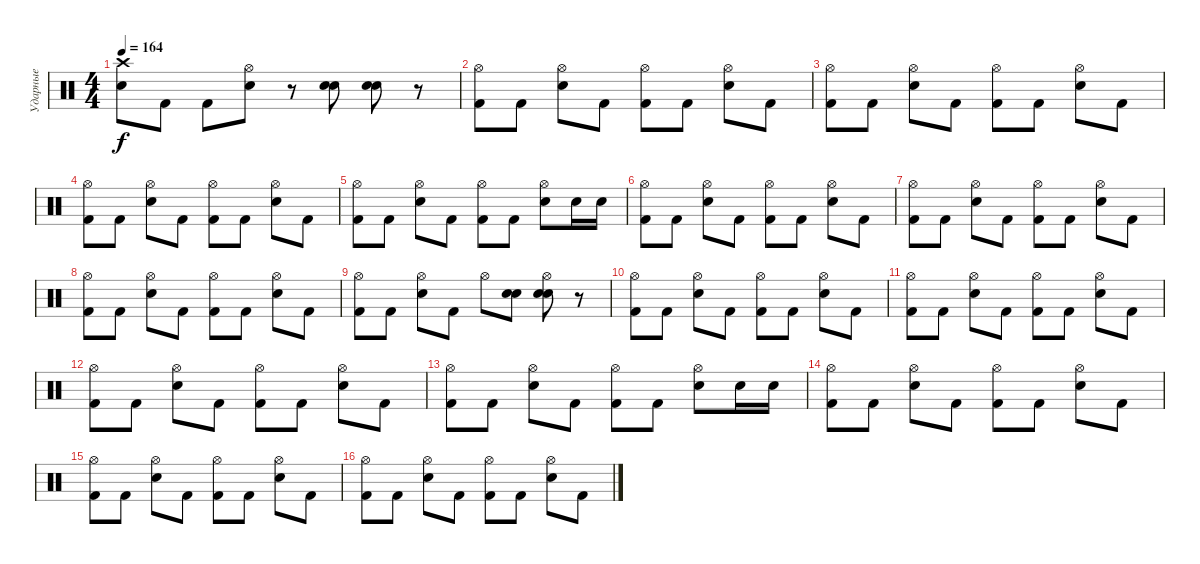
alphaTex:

\track ("Ударные" "Ударные") {instrument percussion}
\staff {score}
\articulation defaults
\ts (4 4)
\tempo 164
\clef neutral
\ks c
("Crash high (hit)" "Snare (hit) 2").8{dy f} "Kick (hit) 2".8 "Kick (hit) 2".8 ("Hi-Hat (open)" "Snare (hit) 2").8 r.8 ("Snare (hit) 2" "Snare (hit) 2").8 ("Snare (hit) 2" "Snare (hit) 2").8 r.8 |
("Hi-Hat (open)" "Kick (hit) 2").8 "Kick (hit) 2".8 ("Hi-Hat (open)" "Snare (hit) 2").8 "Kick (hit) 2".8 ("Hi-Hat (open)" "Kick (hit) 2").8 "Kick (hit) 2".8 ("Hi-Hat (open)" "Snare (hit) 2").8 "Kick (hit) 2".8 |
("Hi-Hat (open)" "Kick (hit) 2").8 "Kick (hit) 2".8 ("Hi-Hat (open)" "Snare (hit) 2").8 "Kick (hit) 2".8 ("Hi-Hat (open)" "Kick (hit) 2").8 "Kick (hit) 2".8 ("Hi-Hat (open)" "Snare (hit) 2").8 "Kick (hit) 2".8 |
("Hi-Hat (open)" "Kick (hit) 2").8 "Kick (hit) 2".8 ("Hi-Hat (open)" "Snare (hit) 2").8 "Kick (hit) 2".8 ("Hi-Hat (open)" "Kick (hit) 2").8 "Kick (hit) 2".8 ("Hi-Hat (open)" "Snare (hit) 2").8 "Kick (hit) 2".8 |
("Hi-Hat (open)" "Kick (hit) 2").8 "Kick (hit) 2".8 ("Hi-Hat (open)" "Snare (hit) 2").8 "Kick (hit) 2".8 ("Hi-Hat (open)" "Kick (hit) 2").8 "Kick (hit) 2".8 ("Hi-Hat (open)" "Snare (hit) 2").8 "Snare (hit) 2".16 "Snare (hit) 2".16 |
("Hi-Hat (open)" "Kick (hit) 2").8 "Kick (hit) 2".8 ("Hi-Hat (open)" "Snare (hit) 2").8 "Kick (hit) 2".8 ("Hi-Hat (open)" "Kick (hit) 2").8 "Kick (hit) 2".8 ("Hi-Hat (open)" "Snare (hit) 2").8 "Kick (hit) 2".8 |
("Hi-Hat (open)" "Kick (hit) 2").8 "Kick (hit) 2".8 ("Hi-Hat (open)" "Snare (hit) 2").8 "Kick (hit) 2".8 ("Hi-Hat (open)" "Kick (hit) 2").8 "Kick (hit) 2".8 ("Hi-Hat (open)" "Snare (hit) 2").8 "Kick (hit) 2".8 |
("Hi-Hat (open)" "Kick (hit) 2").8 "Kick (hit) 2".8 ("Hi-Hat (open)" "Snare (hit) 2").8 "Kick (hit) 2".8 ("Hi-Hat (open)" "Kick (hit) 2").8 "Kick (hit) 2".8 ("Hi-Hat (open)" "Snare (hit) 2").8 "Kick (hit) 2".8 |
("Hi-Hat (open)" "Kick (hit) 2").8 "Kick (hit) 2".8 ("Hi-Hat (open)" "Snare (hit) 2").8 "Kick (hit) 2".8 "Hi-Hat (open)".8 ("Snare (hit) 2" "Snare (hit) 2").8 ("Hi-Hat (open)" "Snare (hit) 2" "Snare (hit) 2").8 r.8 |
("Hi-Hat (open)" "Kick (hit) 2").8 "Kick (hit) 2".8 ("Hi-Hat (open)" "Snare (hit) 2").8 "Kick (hit) 2".8 ("Hi-Hat (open)" "Kick (hit) 2").8 "Kick (hit) 2".8 ("Hi-Hat (open)" "Snare (hit) 2").8 "Kick (hit) 2".8 |
("Hi-Hat (open)" "Kick (hit) 2").8 "Kick (hit) 2".8 ("Hi-Hat (open)" "Snare (hit) 2").8 "Kick (hit) 2".8 ("Hi-Hat (open)" "Kick (hit) 2").8 "Kick (hit) 2".8 ("Hi-Hat (open)" "Snare (hit) 2").8 "Kick (hit) 2".8 |
("Hi-Hat (open)" "Kick (hit) 2").8 "Kick (hit) 2".8 ("Hi-Hat (open)" "Snare (hit) 2").8 "Kick (hit) 2".8 ("Hi-Hat (open)" "Kick (hit) 2").8 "Kick (hit) 2".8 ("Hi-Hat (open)" "Snare (hit) 2").8 "Kick (hit) 2".8 |
("Hi-Hat (open)" "Kick (hit) 2").8 "Kick (hit) 2".8 ("Hi-Hat (open)" "Snare (hit) 2").8 "Kick (hit) 2".8 ("Hi-Hat (open)" "Kick (hit) 2").8 "Kick (hit) 2".8 ("Hi-Hat (open)" "Snare (hit) 2").8 "Snare (hit) 2".16 "Snare (hit) 2".16 |
("Hi-Hat (open)" "Kick (hit) 2").8 "Kick (hit) 2".8 ("Hi-Hat (open)" "Snare (hit) 2").8 "Kick (hit) 2".8 ("Hi-Hat (open)" "Kick (hit) 2").8 "Kick (hit) 2".8 ("Hi-Hat (open)" "Snare (hit) 2").8 "Kick (hit) 2".8 |
("Hi-Hat (open)" "Kick (hit) 2").8 "Kick (hit) 2".8 ("Hi-Hat (open)" "Snare (hit) 2").8 "Kick (hit) 2".8 ("Hi-Hat (open)" "Kick (hit) 2").8 "Kick (hit) 2".8 ("Hi-Hat (open)" "Snare (hit) 2").8 "Kick (hit) 2".8 |
("Hi-Hat (open)" "Kick (hit) 2").8 "Kick (hit) 2".8 ("Hi-Hat (open)" "Snare (hit) 2").8 "Kick (hit) 2".8 ("Hi-Hat (open)" "Kick (hit) 2").8 "Kick (hit) 2".8 ("Hi-Hat (open)" "Snare (hit) 2").8 "Kick (hit) 2".8
